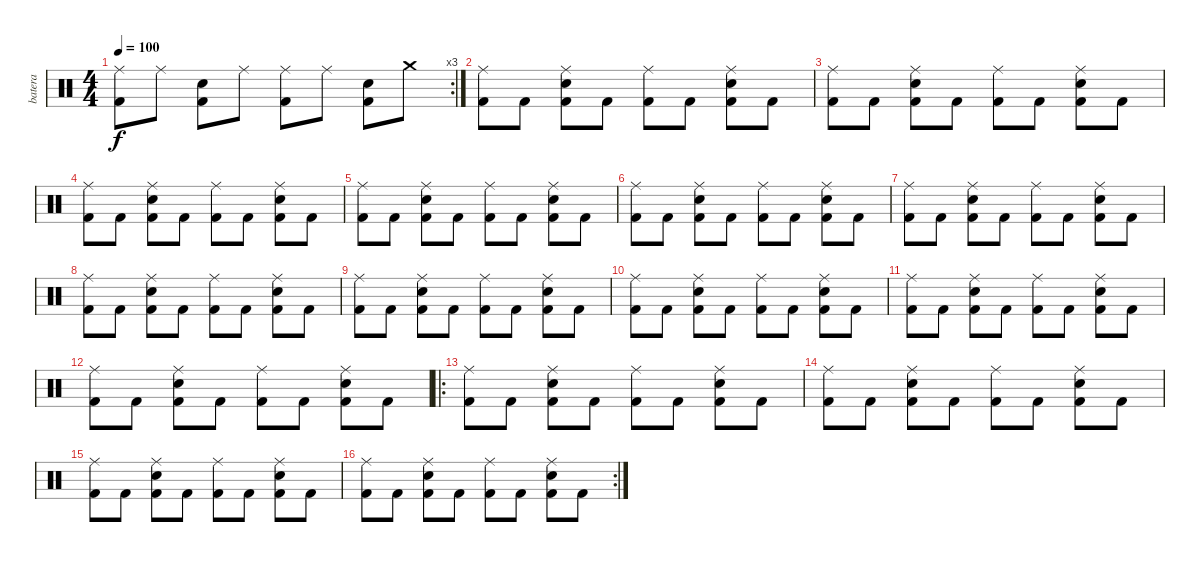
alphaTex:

\track ("batera" "batera") {instrument percussion}
\staff {score}
\articulation defaults
\rc 3
\ts (4 4)
\tempo 100
\clef neutral
\ks c
("Ride (middle)" "Kick (hit) 2").8{dy f} "Ride (middle)".8 ("Electric Snare (hit)" "Kick (hit) 2").8 "Ride (middle)".8 ("Ride (middle)" "Kick (hit) 2").8 "Ride (middle)".8 ("Electric Snare (hit)" "Kick (hit) 2").8 "Crash medium (hit)".8 |
("Ride (middle)" "Kick (hit) 2").8 "Kick (hit) 2".8 ("Ride (middle)" "Electric Snare (hit)" "Kick (hit) 2").8 "Kick (hit) 2".8 ("Ride (middle)" "Kick (hit) 2").8 "Kick (hit) 2".8 ("Ride (middle)" "Electric Snare (hit)" "Kick (hit) 2").8 "Kick (hit) 2".8 |
("Ride (middle)" "Kick (hit) 2").8 "Kick (hit) 2".8 ("Ride (middle)" "Electric Snare (hit)" "Kick (hit) 2").8 "Kick (hit) 2".8 ("Ride (middle)" "Kick (hit) 2").8 "Kick (hit) 2".8 ("Ride (middle)" "Electric Snare (hit)" "Kick (hit) 2").8 "Kick (hit) 2".8 |
("Ride (middle)" "Kick (hit) 2").8 "Kick (hit) 2".8 ("Ride (middle)" "Electric Snare (hit)" "Kick (hit) 2").8 "Kick (hit) 2".8 ("Ride (middle)" "Kick (hit) 2").8 "Kick (hit) 2".8 ("Ride (middle)" "Electric Snare (hit)" "Kick (hit) 2").8 "Kick (hit) 2".8 |
("Ride (middle)" "Kick (hit) 2").8 "Kick (hit) 2".8 ("Ride (middle)" "Electric Snare (hit)" "Kick (hit) 2").8 "Kick (hit) 2".8 ("Ride (middle)" "Kick (hit) 2").8 "Kick (hit) 2".8 ("Ride (middle)" "Electric Snare (hit)" "Kick (hit) 2").8 "Kick (hit) 2".8 |
("Ride (middle)" "Kick (hit) 2").8 "Kick (hit) 2".8 ("Ride (middle)" "Electric Snare (hit)" "Kick (hit) 2").8 "Kick (hit) 2".8 ("Ride (middle)" "Kick (hit) 2").8 "Kick (hit) 2".8 ("Ride (middle)" "Electric Snare (hit)" "Kick (hit) 2").8 "Kick (hit) 2".8 |
("Ride (middle)" "Kick (hit) 2").8 "Kick (hit) 2".8 ("Ride (middle)" "Electric Snare (hit)" "Kick (hit) 2").8 "Kick (hit) 2".8 ("Ride (middle)" "Kick (hit) 2").8 "Kick (hit) 2".8 ("Ride (middle)" "Electric Snare (hit)" "Kick (hit) 2").8 "Kick (hit) 2".8 |
("Ride (middle)" "Kick (hit) 2").8 "Kick (hit) 2".8 ("Ride (middle)" "Electric Snare (hit)" "Kick (hit) 2").8 "Kick (hit) 2".8 ("Ride (middle)" "Kick (hit) 2").8 "Kick (hit) 2".8 ("Ride (middle)" "Electric Snare (hit)" "Kick (hit) 2").8 "Kick (hit) 2".8 |
("Ride (middle)" "Kick (hit) 2").8 "Kick (hit) 2".8 ("Ride (middle)" "Electric Snare (hit)" "Kick (hit) 2").8 "Kick (hit) 2".8 ("Ride (middle)" "Kick (hit) 2").8 "Kick (hit) 2".8 ("Ride (middle)" "Electric Snare (hit)" "Kick (hit) 2").8 "Kick (hit) 2".8 |
("Ride (middle)" "Kick (hit) 2").8 "Kick (hit) 2".8 ("Ride (middle)" "Electric Snare (hit)" "Kick (hit) 2").8 "Kick (hit) 2".8 ("Ride (middle)" "Kick (hit) 2").8 "Kick (hit) 2".8 ("Ride (middle)" "Electric Snare (hit)" "Kick (hit) 2").8 "Kick (hit) 2".8 |
("Ride (middle)" "Kick (hit) 2").8 "Kick (hit) 2".8 ("Ride (middle)" "Electric Snare (hit)" "Kick (hit) 2").8 "Kick (hit) 2".8 ("Ride (middle)" "Kick (hit) 2").8 "Kick (hit) 2".8 ("Ride (middle)" "Electric Snare (hit)" "Kick (hit) 2").8 "Kick (hit) 2".8 |
("Ride (middle)" "Kick (hit) 2").8 "Kick (hit) 2".8 ("Ride (middle)" "Electric Snare (hit)" "Kick (hit) 2").8 "Kick (hit) 2".8 ("Ride (middle)" "Kick (hit) 2").8 "Kick (hit) 2".8 ("Ride (middle)" "Electric Snare (hit)" "Kick (hit) 2").8 "Kick (hit) 2".8 |
\ro
("Ride (middle)" "Kick (hit) 2").8 "Kick (hit) 2".8 ("Ride (middle)" "Electric Snare (hit)" "Kick (hit) 2").8 "Kick (hit) 2".8 ("Ride (middle)" "Kick (hit) 2").8 "Kick (hit) 2".8 ("Ride (middle)" "Electric Snare (hit)" "Kick (hit) 2").8 "Kick (hit) 2".8 |
("Ride (middle)" "Kick (hit) 2").8 "Kick (hit) 2".8 ("Ride (middle)" "Electric Snare (hit)" "Kick (hit) 2").8 "Kick (hit) 2".8 ("Ride (middle)" "Kick (hit) 2").8 "Kick (hit) 2".8 ("Ride (middle)" "Electric Snare (hit)" "Kick (hit) 2").8 "Kick (hit) 2".8 |
("Ride (middle)" "Kick (hit) 2").8 "Kick (hit) 2".8 ("Ride (middle)" "Electric Snare (hit)" "Kick (hit) 2").8 "Kick (hit) 2".8 ("Ride (middle)" "Kick (hit) 2").8 "Kick (hit) 2".8 ("Ride (middle)" "Electric Snare (hit)" "Kick (hit) 2").8 "Kick (hit) 2".8 |
\rc 2
("Ride (middle)" "Kick (hit) 2").8 "Kick (hit) 2".8 ("Ride (middle)" "Electric Snare (hit)" "Kick (hit) 2").8 "Kick (hit) 2".8 ("Ride (middle)" "Kick (hit) 2").8 "Kick (hit) 2".8 ("Ride (middle)" "Electric Snare (hit)" "Kick (hit) 2").8 "Kick (hit) 2".8
